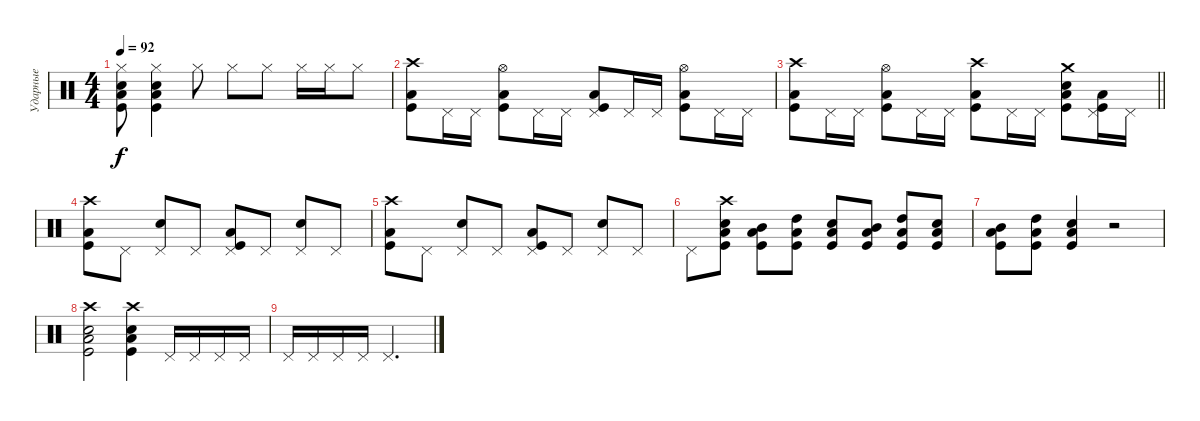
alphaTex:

\track ("Ударные" "Ударные") {instrument percussion}
\staff {score}
\articulation defaults
\ts (4 4)
\tempo 92
\clef neutral
\ks c
("Hi-Hat (closed)" "Electric Snare (hit)" "Low Tom (hit)" "Kick (hit)").8{dy f} ("Hi-Hat (closed)" "Electric Snare (hit)" "Low Tom (hit)" "Kick (hit)").4 "Hi-Hat (closed)".8 "Hi-Hat (closed)".8 "Hi-Hat (closed)".8 "Hi-Hat (closed)".16 "Hi-Hat (closed)".16 "Hi-Hat (closed)".8 |
("Crash high (hit)" "Low Tom (hit)" "Kick (hit)").8 "Pedal Hi-Hat (hit)".16 "Pedal Hi-Hat (hit)".16 ("Hi-Hat (open)" "Low Tom (hit)" "Kick (hit)").8 "Pedal Hi-Hat (hit)".16 "Pedal Hi-Hat (hit)".16 ("Pedal Hi-Hat (hit)" "Low Tom (hit)" "Kick (hit)").8 "Pedal Hi-Hat (hit)".16 "Pedal Hi-Hat (hit)".16 ("Hi-Hat (open)" "Low Tom (hit)" "Kick (hit)").8 "Pedal Hi-Hat (hit)".16 "Pedal Hi-Hat (hit)".16 |
\barLineRight lightlight
("Crash high (hit)" "Low Tom (hit)" "Kick (hit)").8 "Pedal Hi-Hat (hit)".16 "Pedal Hi-Hat (hit)".16 ("Hi-Hat (open)" "Low Tom (hit)" "Kick (hit)").8 "Pedal Hi-Hat (hit)".16 "Pedal Hi-Hat (hit)".16 ("Crash high (hit)" "Low Tom (hit)" "Kick (hit)").8 "Pedal Hi-Hat (hit)".16 "Pedal Hi-Hat (hit)".16 ("Crash medium (hit)" "Electric Snare (hit)" "Low Tom (hit)" "Kick (hit)").8 ("Pedal Hi-Hat (hit)" "Low Tom (hit)" "Kick (hit)").16 "Pedal Hi-Hat (hit)".16 |
("Crash high (hit)" "Low Tom (hit)" "Kick (hit)").8 "Pedal Hi-Hat (hit)".8 ("Pedal Hi-Hat (hit)" "Electric Snare (hit)").8 "Pedal Hi-Hat (hit)".8 ("Pedal Hi-Hat (hit)" "Low Tom (hit)" "Kick (hit)").8 "Pedal Hi-Hat (hit)".8 ("Pedal Hi-Hat (hit)" "Electric Snare (hit)").8 "Pedal Hi-Hat (hit)".8 |
("Crash high (hit)" "Low Tom (hit)" "Kick (hit)").8 "Pedal Hi-Hat (hit)".8 ("Pedal Hi-Hat (hit)" "Electric Snare (hit)").8 "Pedal Hi-Hat (hit)".8 ("Pedal Hi-Hat (hit)" "Low Tom (hit)" "Kick (hit)").8 "Pedal Hi-Hat (hit)".8 ("Pedal Hi-Hat (hit)" "Electric Snare (hit)").8 "Pedal Hi-Hat (hit)".8 |
"Pedal Hi-Hat (hit)".8 ("Crash high (hit)" "Electric Snare (hit)" "Low Tom (hit)" "Kick (hit)").8 ("Mid Tom (hit)" "Low Tom (hit)" "Kick (hit)").8 ("High Tom (hit)" "Low Tom (hit)" "Kick (hit)").8 ("Electric Snare (hit)" "Low Tom (hit)" "Kick (hit)").8 ("Mid Tom (hit)" "Low Tom (hit)" "Kick (hit)").8 ("High Tom (hit)" "Low Tom (hit)" "Kick (hit)").8 ("Electric Snare (hit)" "Low Tom (hit)" "Kick (hit)").8 |
("Mid Tom (hit)" "Low Tom (hit)" "Kick (hit)").8 ("High Tom (hit)" "Low Tom (hit)" "Kick (hit)").8 ("Electric Snare (hit)" "Low Tom (hit)" "Kick (hit)").4 r.2 |
("Crash high (hit)" "Electric Snare (hit)" "Low Tom (hit)" "Kick (hit)").2 ("Crash high (hit)" "Electric Snare (hit)" "Low Tom (hit)" "Kick (hit)").4 "Pedal Hi-Hat (hit)".16 "Pedal Hi-Hat (hit)".16 "Pedal Hi-Hat (hit)".16 "Pedal Hi-Hat (hit)".16 |
"Pedal Hi-Hat (hit)".16 "Pedal Hi-Hat (hit)".16 "Pedal Hi-Hat (hit)".16 "Pedal Hi-Hat (hit)".16 "Pedal Hi-Hat (hit)".2{d}
